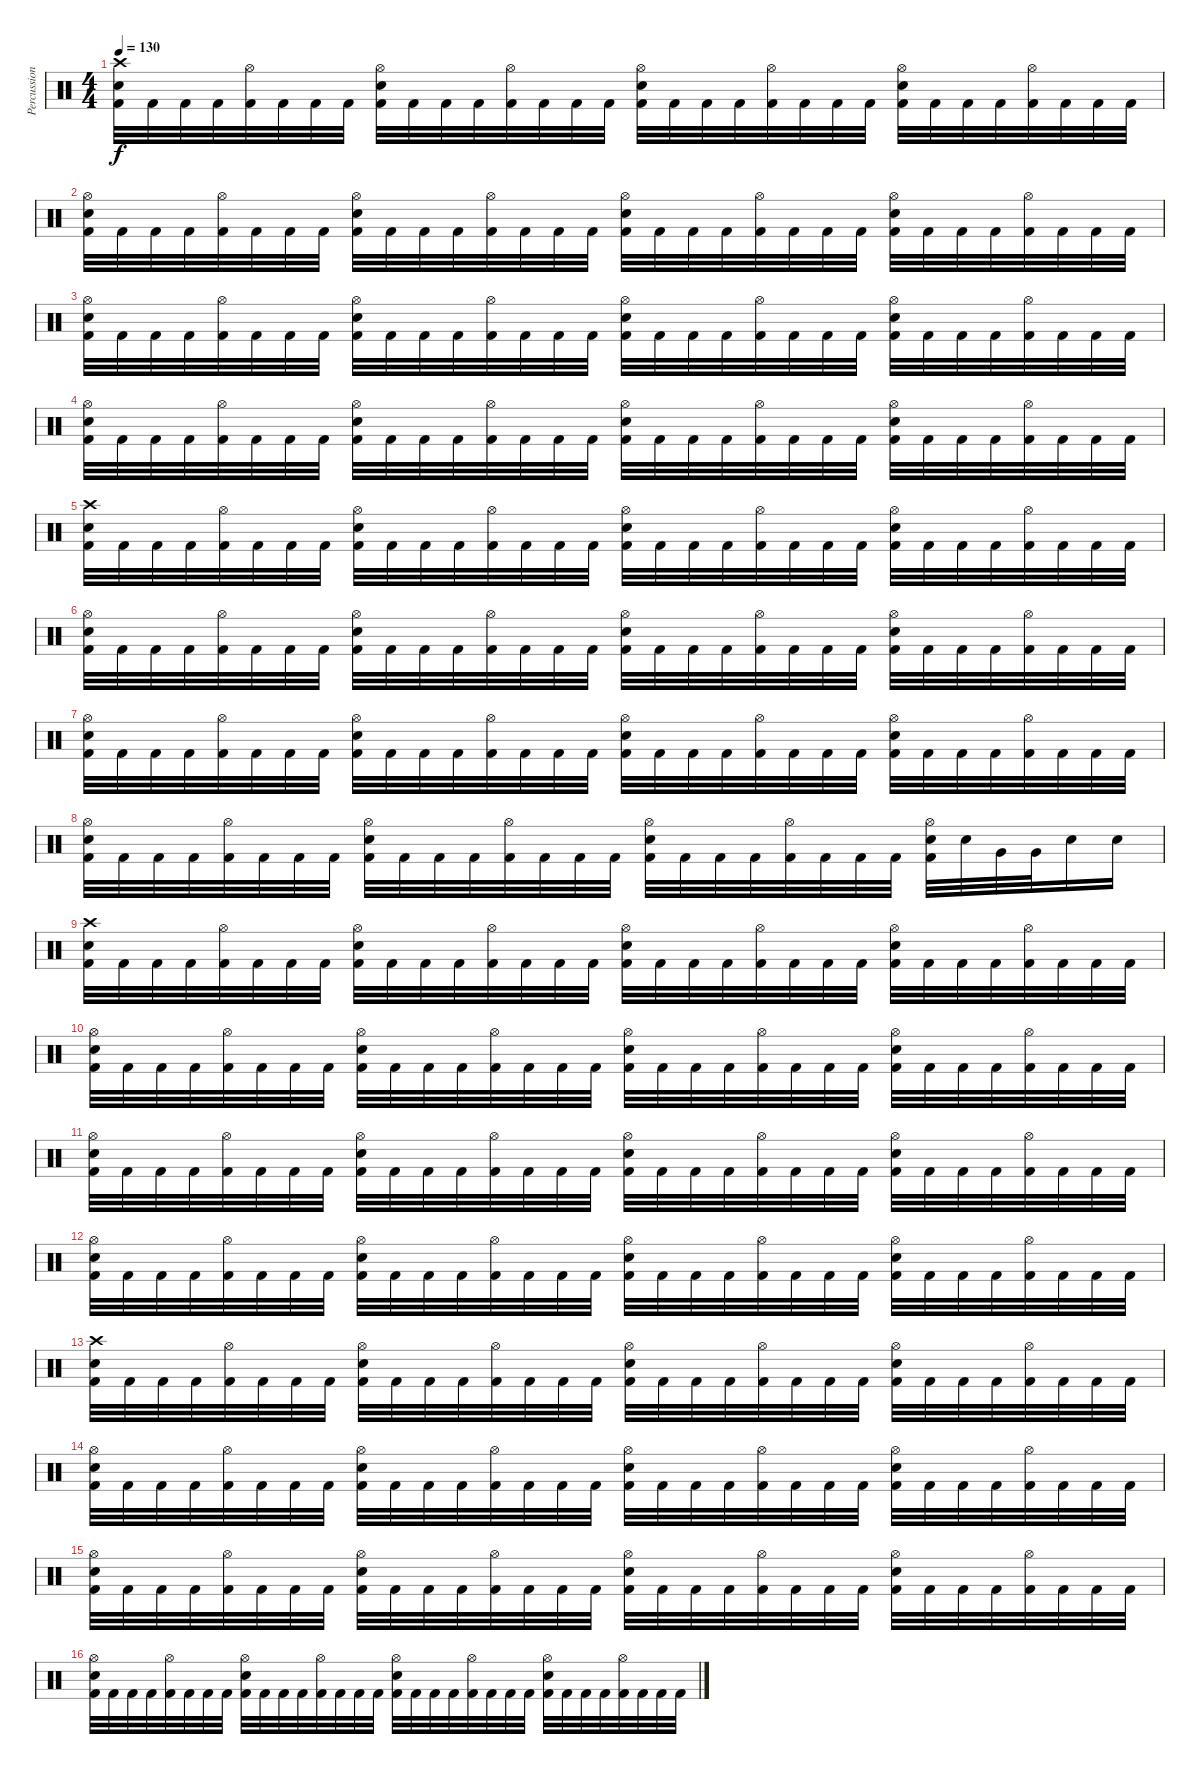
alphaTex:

\track ("Percussion" "Percussion") {instrument percussion}
\staff {score}
\articulation defaults
\ts (4 4)
\tempo 130
\clef neutral
\ks c
("Crash high (hit)" "Electric Snare (hit)" "Kick (hit) 2").32{dy f} "Kick (hit) 2".32 "Kick (hit) 2".32 "Kick (hit) 2".32 ("Hi-Hat (open)" "Kick (hit) 2").32 "Kick (hit) 2".32 "Kick (hit) 2".32 "Kick (hit) 2".32 ("Hi-Hat (open)" "Electric Snare (hit)" "Kick (hit) 2").32 "Kick (hit) 2".32 "Kick (hit) 2".32 "Kick (hit) 2".32 ("Hi-Hat (open)" "Kick (hit) 2").32 "Kick (hit) 2".32 "Kick (hit) 2".32 "Kick (hit) 2".32 ("Hi-Hat (open)" "Electric Snare (hit)" "Kick (hit) 2").32 "Kick (hit) 2".32 "Kick (hit) 2".32 "Kick (hit) 2".32 ("Hi-Hat (open)" "Kick (hit) 2").32 "Kick (hit) 2".32 "Kick (hit) 2".32 "Kick (hit) 2".32 ("Hi-Hat (open)" "Electric Snare (hit)" "Kick (hit) 2").32 "Kick (hit) 2".32 "Kick (hit) 2".32 "Kick (hit) 2".32 ("Hi-Hat (open)" "Kick (hit) 2").32 "Kick (hit) 2".32 "Kick (hit) 2".32 "Kick (hit) 2".32 |
("Hi-Hat (open)" "Electric Snare (hit)" "Kick (hit) 2").32 "Kick (hit) 2".32 "Kick (hit) 2".32 "Kick (hit) 2".32 ("Hi-Hat (open)" "Kick (hit) 2").32 "Kick (hit) 2".32 "Kick (hit) 2".32 "Kick (hit) 2".32 ("Hi-Hat (open)" "Electric Snare (hit)" "Kick (hit) 2").32 "Kick (hit) 2".32 "Kick (hit) 2".32 "Kick (hit) 2".32 ("Hi-Hat (open)" "Kick (hit) 2").32 "Kick (hit) 2".32 "Kick (hit) 2".32 "Kick (hit) 2".32 ("Hi-Hat (open)" "Electric Snare (hit)" "Kick (hit) 2").32 "Kick (hit) 2".32 "Kick (hit) 2".32 "Kick (hit) 2".32 ("Hi-Hat (open)" "Kick (hit) 2").32 "Kick (hit) 2".32 "Kick (hit) 2".32 "Kick (hit) 2".32 ("Hi-Hat (open)" "Electric Snare (hit)" "Kick (hit) 2").32 "Kick (hit) 2".32 "Kick (hit) 2".32 "Kick (hit) 2".32 ("Hi-Hat (open)" "Kick (hit) 2").32 "Kick (hit) 2".32 "Kick (hit) 2".32 "Kick (hit) 2".32 |
("Hi-Hat (open)" "Electric Snare (hit)" "Kick (hit) 2").32 "Kick (hit) 2".32 "Kick (hit) 2".32 "Kick (hit) 2".32 ("Hi-Hat (open)" "Kick (hit) 2").32 "Kick (hit) 2".32 "Kick (hit) 2".32 "Kick (hit) 2".32 ("Hi-Hat (open)" "Electric Snare (hit)" "Kick (hit) 2").32 "Kick (hit) 2".32 "Kick (hit) 2".32 "Kick (hit) 2".32 ("Hi-Hat (open)" "Kick (hit) 2").32 "Kick (hit) 2".32 "Kick (hit) 2".32 "Kick (hit) 2".32 ("Hi-Hat (open)" "Electric Snare (hit)" "Kick (hit) 2").32 "Kick (hit) 2".32 "Kick (hit) 2".32 "Kick (hit) 2".32 ("Hi-Hat (open)" "Kick (hit) 2").32 "Kick (hit) 2".32 "Kick (hit) 2".32 "Kick (hit) 2".32 ("Hi-Hat (open)" "Electric Snare (hit)" "Kick (hit) 2").32 "Kick (hit) 2".32 "Kick (hit) 2".32 "Kick (hit) 2".32 ("Hi-Hat (open)" "Kick (hit) 2").32 "Kick (hit) 2".32 "Kick (hit) 2".32 "Kick (hit) 2".32 |
("Hi-Hat (open)" "Electric Snare (hit)" "Kick (hit) 2").32 "Kick (hit) 2".32 "Kick (hit) 2".32 "Kick (hit) 2".32 ("Hi-Hat (open)" "Kick (hit) 2").32 "Kick (hit) 2".32 "Kick (hit) 2".32 "Kick (hit) 2".32 ("Hi-Hat (open)" "Electric Snare (hit)" "Kick (hit) 2").32 "Kick (hit) 2".32 "Kick (hit) 2".32 "Kick (hit) 2".32 ("Hi-Hat (open)" "Kick (hit) 2").32 "Kick (hit) 2".32 "Kick (hit) 2".32 "Kick (hit) 2".32 ("Hi-Hat (open)" "Electric Snare (hit)" "Kick (hit) 2").32 "Kick (hit) 2".32 "Kick (hit) 2".32 "Kick (hit) 2".32 ("Hi-Hat (open)" "Kick (hit) 2").32 "Kick (hit) 2".32 "Kick (hit) 2".32 "Kick (hit) 2".32 ("Hi-Hat (open)" "Electric Snare (hit)" "Kick (hit) 2").32 "Kick (hit) 2".32 "Kick (hit) 2".32 "Kick (hit) 2".32 ("Hi-Hat (open)" "Kick (hit) 2").32 "Kick (hit) 2".32 "Kick (hit) 2".32 "Kick (hit) 2".32 |
("Crash high (hit)" "Electric Snare (hit)" "Kick (hit) 2").32 "Kick (hit) 2".32 "Kick (hit) 2".32 "Kick (hit) 2".32 ("Hi-Hat (open)" "Kick (hit) 2").32 "Kick (hit) 2".32 "Kick (hit) 2".32 "Kick (hit) 2".32 ("Hi-Hat (open)" "Electric Snare (hit)" "Kick (hit) 2").32 "Kick (hit) 2".32 "Kick (hit) 2".32 "Kick (hit) 2".32 ("Hi-Hat (open)" "Kick (hit) 2").32 "Kick (hit) 2".32 "Kick (hit) 2".32 "Kick (hit) 2".32 ("Hi-Hat (open)" "Electric Snare (hit)" "Kick (hit) 2").32 "Kick (hit) 2".32 "Kick (hit) 2".32 "Kick (hit) 2".32 ("Hi-Hat (open)" "Kick (hit) 2").32 "Kick (hit) 2".32 "Kick (hit) 2".32 "Kick (hit) 2".32 ("Hi-Hat (open)" "Electric Snare (hit)" "Kick (hit) 2").32 "Kick (hit) 2".32 "Kick (hit) 2".32 "Kick (hit) 2".32 ("Hi-Hat (open)" "Kick (hit) 2").32 "Kick (hit) 2".32 "Kick (hit) 2".32 "Kick (hit) 2".32 |
("Hi-Hat (open)" "Electric Snare (hit)" "Kick (hit) 2").32 "Kick (hit) 2".32 "Kick (hit) 2".32 "Kick (hit) 2".32 ("Hi-Hat (open)" "Kick (hit) 2").32 "Kick (hit) 2".32 "Kick (hit) 2".32 "Kick (hit) 2".32 ("Hi-Hat (open)" "Electric Snare (hit)" "Kick (hit) 2").32 "Kick (hit) 2".32 "Kick (hit) 2".32 "Kick (hit) 2".32 ("Hi-Hat (open)" "Kick (hit) 2").32 "Kick (hit) 2".32 "Kick (hit) 2".32 "Kick (hit) 2".32 ("Hi-Hat (open)" "Electric Snare (hit)" "Kick (hit) 2").32 "Kick (hit) 2".32 "Kick (hit) 2".32 "Kick (hit) 2".32 ("Hi-Hat (open)" "Kick (hit) 2").32 "Kick (hit) 2".32 "Kick (hit) 2".32 "Kick (hit) 2".32 ("Hi-Hat (open)" "Electric Snare (hit)" "Kick (hit) 2").32 "Kick (hit) 2".32 "Kick (hit) 2".32 "Kick (hit) 2".32 ("Hi-Hat (open)" "Kick (hit) 2").32 "Kick (hit) 2".32 "Kick (hit) 2".32 "Kick (hit) 2".32 |
("Hi-Hat (open)" "Electric Snare (hit)" "Kick (hit) 2").32 "Kick (hit) 2".32 "Kick (hit) 2".32 "Kick (hit) 2".32 ("Hi-Hat (open)" "Kick (hit) 2").32 "Kick (hit) 2".32 "Kick (hit) 2".32 "Kick (hit) 2".32 ("Hi-Hat (open)" "Electric Snare (hit)" "Kick (hit) 2").32 "Kick (hit) 2".32 "Kick (hit) 2".32 "Kick (hit) 2".32 ("Hi-Hat (open)" "Kick (hit) 2").32 "Kick (hit) 2".32 "Kick (hit) 2".32 "Kick (hit) 2".32 ("Hi-Hat (open)" "Electric Snare (hit)" "Kick (hit) 2").32 "Kick (hit) 2".32 "Kick (hit) 2".32 "Kick (hit) 2".32 ("Hi-Hat (open)" "Kick (hit) 2").32 "Kick (hit) 2".32 "Kick (hit) 2".32 "Kick (hit) 2".32 ("Hi-Hat (open)" "Electric Snare (hit)" "Kick (hit) 2").32 "Kick (hit) 2".32 "Kick (hit) 2".32 "Kick (hit) 2".32 ("Hi-Hat (open)" "Kick (hit) 2").32 "Kick (hit) 2".32 "Kick (hit) 2".32 "Kick (hit) 2".32 |
("Hi-Hat (open)" "Electric Snare (hit)" "Kick (hit) 2").32 "Kick (hit) 2".32 "Kick (hit) 2".32 "Kick (hit) 2".32 ("Hi-Hat (open)" "Kick (hit) 2").32 "Kick (hit) 2".32 "Kick (hit) 2".32 "Kick (hit) 2".32 ("Hi-Hat (open)" "Electric Snare (hit)" "Kick (hit) 2").32 "Kick (hit) 2".32 "Kick (hit) 2".32 "Kick (hit) 2".32 ("Hi-Hat (open)" "Kick (hit) 2").32 "Kick (hit) 2".32 "Kick (hit) 2".32 "Kick (hit) 2".32 ("Hi-Hat (open)" "Electric Snare (hit)" "Kick (hit) 2").32 "Kick (hit) 2".32 "Kick (hit) 2".32 "Kick (hit) 2".32 ("Hi-Hat (open)" "Kick (hit) 2").32 "Kick (hit) 2".32 "Kick (hit) 2".32 "Kick (hit) 2".32 ("Hi-Hat (open)" "Electric Snare (hit)" "Kick (hit) 2").32 "Electric Snare (hit)".32 "Very Low Tom (hit)".32 "Very Low Tom (hit)".32 "Electric Snare (hit)".16 "Electric Snare (hit)".16 |
("Crash high (hit)" "Electric Snare (hit)" "Kick (hit) 2").32 "Kick (hit) 2".32 "Kick (hit) 2".32 "Kick (hit) 2".32 ("Hi-Hat (open)" "Kick (hit) 2").32 "Kick (hit) 2".32 "Kick (hit) 2".32 "Kick (hit) 2".32 ("Hi-Hat (open)" "Electric Snare (hit)" "Kick (hit) 2").32 "Kick (hit) 2".32 "Kick (hit) 2".32 "Kick (hit) 2".32 ("Hi-Hat (open)" "Kick (hit) 2").32 "Kick (hit) 2".32 "Kick (hit) 2".32 "Kick (hit) 2".32 ("Hi-Hat (open)" "Electric Snare (hit)" "Kick (hit) 2").32 "Kick (hit) 2".32 "Kick (hit) 2".32 "Kick (hit) 2".32 ("Hi-Hat (open)" "Kick (hit) 2").32 "Kick (hit) 2".32 "Kick (hit) 2".32 "Kick (hit) 2".32 ("Hi-Hat (open)" "Electric Snare (hit)" "Kick (hit) 2").32 "Kick (hit) 2".32 "Kick (hit) 2".32 "Kick (hit) 2".32 ("Hi-Hat (open)" "Kick (hit) 2").32 "Kick (hit) 2".32 "Kick (hit) 2".32 "Kick (hit) 2".32 |
("Hi-Hat (open)" "Electric Snare (hit)" "Kick (hit) 2").32 "Kick (hit) 2".32 "Kick (hit) 2".32 "Kick (hit) 2".32 ("Hi-Hat (open)" "Kick (hit) 2").32 "Kick (hit) 2".32 "Kick (hit) 2".32 "Kick (hit) 2".32 ("Hi-Hat (open)" "Electric Snare (hit)" "Kick (hit) 2").32 "Kick (hit) 2".32 "Kick (hit) 2".32 "Kick (hit) 2".32 ("Hi-Hat (open)" "Kick (hit) 2").32 "Kick (hit) 2".32 "Kick (hit) 2".32 "Kick (hit) 2".32 ("Hi-Hat (open)" "Electric Snare (hit)" "Kick (hit) 2").32 "Kick (hit) 2".32 "Kick (hit) 2".32 "Kick (hit) 2".32 ("Hi-Hat (open)" "Kick (hit) 2").32 "Kick (hit) 2".32 "Kick (hit) 2".32 "Kick (hit) 2".32 ("Hi-Hat (open)" "Electric Snare (hit)" "Kick (hit) 2").32 "Kick (hit) 2".32 "Kick (hit) 2".32 "Kick (hit) 2".32 ("Hi-Hat (open)" "Kick (hit) 2").32 "Kick (hit) 2".32 "Kick (hit) 2".32 "Kick (hit) 2".32 |
("Hi-Hat (open)" "Electric Snare (hit)" "Kick (hit) 2").32 "Kick (hit) 2".32 "Kick (hit) 2".32 "Kick (hit) 2".32 ("Hi-Hat (open)" "Kick (hit) 2").32 "Kick (hit) 2".32 "Kick (hit) 2".32 "Kick (hit) 2".32 ("Hi-Hat (open)" "Electric Snare (hit)" "Kick (hit) 2").32 "Kick (hit) 2".32 "Kick (hit) 2".32 "Kick (hit) 2".32 ("Hi-Hat (open)" "Kick (hit) 2").32 "Kick (hit) 2".32 "Kick (hit) 2".32 "Kick (hit) 2".32 ("Hi-Hat (open)" "Electric Snare (hit)" "Kick (hit) 2").32 "Kick (hit) 2".32 "Kick (hit) 2".32 "Kick (hit) 2".32 ("Hi-Hat (open)" "Kick (hit) 2").32 "Kick (hit) 2".32 "Kick (hit) 2".32 "Kick (hit) 2".32 ("Hi-Hat (open)" "Electric Snare (hit)" "Kick (hit) 2").32 "Kick (hit) 2".32 "Kick (hit) 2".32 "Kick (hit) 2".32 ("Hi-Hat (open)" "Kick (hit) 2").32 "Kick (hit) 2".32 "Kick (hit) 2".32 "Kick (hit) 2".32 |
("Hi-Hat (open)" "Electric Snare (hit)" "Kick (hit) 2").32 "Kick (hit) 2".32 "Kick (hit) 2".32 "Kick (hit) 2".32 ("Hi-Hat (open)" "Kick (hit) 2").32 "Kick (hit) 2".32 "Kick (hit) 2".32 "Kick (hit) 2".32 ("Hi-Hat (open)" "Electric Snare (hit)" "Kick (hit) 2").32 "Kick (hit) 2".32 "Kick (hit) 2".32 "Kick (hit) 2".32 ("Hi-Hat (open)" "Kick (hit) 2").32 "Kick (hit) 2".32 "Kick (hit) 2".32 "Kick (hit) 2".32 ("Hi-Hat (open)" "Electric Snare (hit)" "Kick (hit) 2").32 "Kick (hit) 2".32 "Kick (hit) 2".32 "Kick (hit) 2".32 ("Hi-Hat (open)" "Kick (hit) 2").32 "Kick (hit) 2".32 "Kick (hit) 2".32 "Kick (hit) 2".32 ("Hi-Hat (open)" "Electric Snare (hit)" "Kick (hit) 2").32 "Kick (hit) 2".32 "Kick (hit) 2".32 "Kick (hit) 2".32 ("Hi-Hat (open)" "Kick (hit) 2").32 "Kick (hit) 2".32 "Kick (hit) 2".32 "Kick (hit) 2".32 |
("Crash high (hit)" "Electric Snare (hit)" "Kick (hit) 2").32 "Kick (hit) 2".32 "Kick (hit) 2".32 "Kick (hit) 2".32 ("Hi-Hat (open)" "Kick (hit) 2").32 "Kick (hit) 2".32 "Kick (hit) 2".32 "Kick (hit) 2".32 ("Hi-Hat (open)" "Electric Snare (hit)" "Kick (hit) 2").32 "Kick (hit) 2".32 "Kick (hit) 2".32 "Kick (hit) 2".32 ("Hi-Hat (open)" "Kick (hit) 2").32 "Kick (hit) 2".32 "Kick (hit) 2".32 "Kick (hit) 2".32 ("Hi-Hat (open)" "Electric Snare (hit)" "Kick (hit) 2").32 "Kick (hit) 2".32 "Kick (hit) 2".32 "Kick (hit) 2".32 ("Hi-Hat (open)" "Kick (hit) 2").32 "Kick (hit) 2".32 "Kick (hit) 2".32 "Kick (hit) 2".32 ("Hi-Hat (open)" "Electric Snare (hit)" "Kick (hit) 2").32 "Kick (hit) 2".32 "Kick (hit) 2".32 "Kick (hit) 2".32 ("Hi-Hat (open)" "Kick (hit) 2").32 "Kick (hit) 2".32 "Kick (hit) 2".32 "Kick (hit) 2".32 |
("Hi-Hat (open)" "Electric Snare (hit)" "Kick (hit) 2").32 "Kick (hit) 2".32 "Kick (hit) 2".32 "Kick (hit) 2".32 ("Hi-Hat (open)" "Kick (hit) 2").32 "Kick (hit) 2".32 "Kick (hit) 2".32 "Kick (hit) 2".32 ("Hi-Hat (open)" "Electric Snare (hit)" "Kick (hit) 2").32 "Kick (hit) 2".32 "Kick (hit) 2".32 "Kick (hit) 2".32 ("Hi-Hat (open)" "Kick (hit) 2").32 "Kick (hit) 2".32 "Kick (hit) 2".32 "Kick (hit) 2".32 ("Hi-Hat (open)" "Electric Snare (hit)" "Kick (hit) 2").32 "Kick (hit) 2".32 "Kick (hit) 2".32 "Kick (hit) 2".32 ("Hi-Hat (open)" "Kick (hit) 2").32 "Kick (hit) 2".32 "Kick (hit) 2".32 "Kick (hit) 2".32 ("Hi-Hat (open)" "Electric Snare (hit)" "Kick (hit) 2").32 "Kick (hit) 2".32 "Kick (hit) 2".32 "Kick (hit) 2".32 ("Hi-Hat (open)" "Kick (hit) 2").32 "Kick (hit) 2".32 "Kick (hit) 2".32 "Kick (hit) 2".32 |
("Hi-Hat (open)" "Electric Snare (hit)" "Kick (hit) 2").32 "Kick (hit) 2".32 "Kick (hit) 2".32 "Kick (hit) 2".32 ("Hi-Hat (open)" "Kick (hit) 2").32 "Kick (hit) 2".32 "Kick (hit) 2".32 "Kick (hit) 2".32 ("Hi-Hat (open)" "Electric Snare (hit)" "Kick (hit) 2").32 "Kick (hit) 2".32 "Kick (hit) 2".32 "Kick (hit) 2".32 ("Hi-Hat (open)" "Kick (hit) 2").32 "Kick (hit) 2".32 "Kick (hit) 2".32 "Kick (hit) 2".32 ("Hi-Hat (open)" "Electric Snare (hit)" "Kick (hit) 2").32 "Kick (hit) 2".32 "Kick (hit) 2".32 "Kick (hit) 2".32 ("Hi-Hat (open)" "Kick (hit) 2").32 "Kick (hit) 2".32 "Kick (hit) 2".32 "Kick (hit) 2".32 ("Hi-Hat (open)" "Electric Snare (hit)" "Kick (hit) 2").32 "Kick (hit) 2".32 "Kick (hit) 2".32 "Kick (hit) 2".32 ("Hi-Hat (open)" "Kick (hit) 2").32 "Kick (hit) 2".32 "Kick (hit) 2".32 "Kick (hit) 2".32 |
("Hi-Hat (open)" "Electric Snare (hit)" "Kick (hit) 2").32 "Kick (hit) 2".32 "Kick (hit) 2".32 "Kick (hit) 2".32 ("Hi-Hat (open)" "Kick (hit) 2").32 "Kick (hit) 2".32 "Kick (hit) 2".32 "Kick (hit) 2".32 ("Hi-Hat (open)" "Electric Snare (hit)" "Kick (hit) 2").32 "Kick (hit) 2".32 "Kick (hit) 2".32 "Kick (hit) 2".32 ("Hi-Hat (open)" "Kick (hit) 2").32 "Kick (hit) 2".32 "Kick (hit) 2".32 "Kick (hit) 2".32 ("Hi-Hat (open)" "Electric Snare (hit)" "Kick (hit) 2").32 "Kick (hit) 2".32 "Kick (hit) 2".32 "Kick (hit) 2".32 ("Hi-Hat (open)" "Kick (hit) 2").32 "Kick (hit) 2".32 "Kick (hit) 2".32 "Kick (hit) 2".32 ("Hi-Hat (open)" "Electric Snare (hit)" "Kick (hit) 2").32 "Kick (hit) 2".32 "Kick (hit) 2".32 "Kick (hit) 2".32 ("Hi-Hat (open)" "Kick (hit) 2").32 "Kick (hit) 2".32 "Kick (hit) 2".32 "Kick (hit) 2".32
